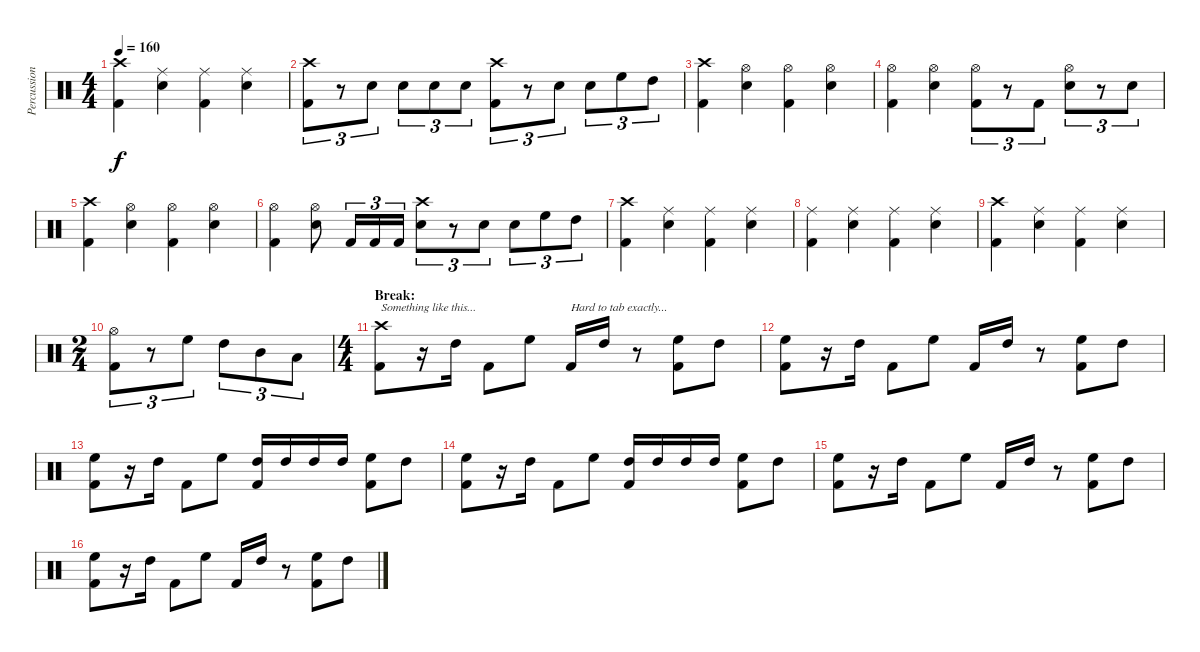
\track ("Percussion" "Percussion") {instrument percussion}
\staff {score}
\articulation defaults
\ts (4 4)
\tempo 160
\clef neutral
\ks c
("Crash high (hit)" "Kick (hit) 2").4{dy f} ("Ride (middle)" "Electric Snare (hit)").4 ("Ride (middle)" "Kick (hit) 2").4 ("Ride (middle)" "Electric Snare (hit)").4 |
("Crash high (hit)" "Kick (hit) 2").8{tu (3 2)} r.8{tu (3 2)} "Electric Snare (hit)".8{tu (3 2)} "Electric Snare (hit)".8{tu (3 2)} "Electric Snare (hit)".8{tu (3 2)} "Electric Snare (hit)".8{tu (3 2)} ("Crash high (hit)" "Kick (hit) 2").8{tu (3 2)} r.8{tu (3 2)} "Electric Snare (hit)".8{tu (3 2)} "Electric Snare (hit)".8{tu (3 2)} "High Floor Tom (hit)".8{tu (3 2)} "High Tom (hit)".8{tu (3 2)} |
("Crash high (hit)" "Kick (hit) 2").4 ("Hi-Hat (open)" "Electric Snare (hit)").4 ("Hi-Hat (open)" "Kick (hit) 2").4 ("Hi-Hat (open)" "Electric Snare (hit)").4 |
("Hi-Hat (open)" "Kick (hit) 2").4 ("Hi-Hat (open)" "Electric Snare (hit)").4 ("Hi-Hat (open)" "Kick (hit) 2").8{tu (3 2)} r.8{tu (3 2)} "Kick (hit) 2".8{tu (3 2)} ("Hi-Hat (open)" "Electric Snare (hit)").8{tu (3 2)} r.8{tu (3 2)} "Electric Snare (hit)".8{tu (3 2)} |
("Crash high (hit)" "Kick (hit) 2").4 ("Hi-Hat (open)" "Electric Snare (hit)").4 ("Hi-Hat (open)" "Kick (hit) 2").4 ("Hi-Hat (open)" "Electric Snare (hit)").4 |
("Hi-Hat (open)" "Kick (hit) 2").4 ("Hi-Hat (open)" "Electric Snare (hit)").8 "Kick (hit) 2".16{tu (3 2)} "Kick (hit) 2".16{tu (3 2)} "Kick (hit) 2".16{tu (3 2)} ("Crash high (hit)" "Electric Snare (hit)").8{tu (3 2)} r.8{tu (3 2)} "Electric Snare (hit)".8{tu (3 2)} "Electric Snare (hit)".8{tu (3 2)} "High Floor Tom (hit)".8{tu (3 2)} "High Tom (hit)".8{tu (3 2)} |
("Crash high (hit)" "Kick (hit) 2").4 ("Ride (middle)" "Electric Snare (hit)").4 ("Ride (middle)" "Kick (hit) 2").4 ("Ride (middle)" "Electric Snare (hit)").4 |
("Ride (middle)" "Kick (hit) 2").4 ("Ride (middle)" "Electric Snare (hit)").4 ("Ride (middle)" "Kick (hit) 2").4 ("Ride (middle)" "Electric Snare (hit)").4 |
("Crash high (hit)" "Kick (hit) 2").4 ("Ride (middle)" "Electric Snare (hit)").4 ("Ride (middle)" "Kick (hit) 2").4 ("Ride (middle)" "Electric Snare (hit)").4 |
\ts (2 4)
("Hi-Hat (open)" "Kick (hit) 2").8{tu (3 2)} r.8{tu (3 2)} "High Floor Tom (hit)".8{tu (3 2)} "High Tom (hit)".8{tu (3 2)} "Mid Tom (hit)".8{tu (3 2)} "Low Tom (hit)".8{tu (3 2)} |
\ts (4 4)
\section ("" "Break:")
("Crash high (hit)" "Kick (hit) 2").8{txt "Something like this..."} r.16 "High Tom (hit)".16 "Kick (hit) 2".8 "High Floor Tom (hit)".8 "Kick (hit) 2".16{txt "Hard to tab exactly..."} "High Tom (hit)".16 r.8 ("High Floor Tom (hit)" "Kick (hit) 2").8 "High Tom (hit)".8 |
("High Floor Tom (hit)" "Kick (hit) 2").8 r.16 "High Tom (hit)".16 "Kick (hit) 2".8 "High Floor Tom (hit)".8 "Kick (hit) 2".16 "High Tom (hit)".16 r.8 ("High Floor Tom (hit)" "Kick (hit) 2").8 "High Tom (hit)".8 |
("High Floor Tom (hit)" "Kick (hit) 2").8 r.16 "High Tom (hit)".16 "Kick (hit) 2".8 "High Floor Tom (hit)".8 ("High Tom (hit)" "Kick (hit) 2").16 "High Tom (hit)".16 "High Tom (hit)".16 "High Tom (hit)".16 ("High Floor Tom (hit)" "Kick (hit) 2").8 "High Tom (hit)".8 |
("High Floor Tom (hit)" "Kick (hit) 2").8 r.16 "High Tom (hit)".16 "Kick (hit) 2".8 "High Floor Tom (hit)".8 ("High Tom (hit)" "Kick (hit) 2").16 "High Tom (hit)".16 "High Tom (hit)".16 "High Tom (hit)".16 ("High Floor Tom (hit)" "Kick (hit) 2").8 "High Tom (hit)".8 |
("High Floor Tom (hit)" "Kick (hit) 2").8 r.16 "High Tom (hit)".16 "Kick (hit) 2".8 "High Floor Tom (hit)".8 "Kick (hit) 2".16 "High Tom (hit)".16 r.8 ("High Floor Tom (hit)" "Kick (hit) 2").8 "High Tom (hit)".8 |
("High Floor Tom (hit)" "Kick (hit) 2").8 r.16 "High Tom (hit)".16 "Kick (hit) 2".8 "High Floor Tom (hit)".8 "Kick (hit) 2".16 "High Tom (hit)".16 r.8 ("High Floor Tom (hit)" "Kick (hit) 2").8 "High Tom (hit)".8
